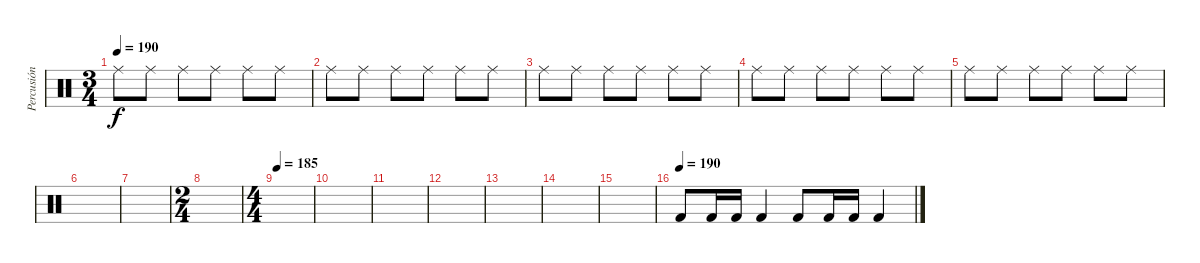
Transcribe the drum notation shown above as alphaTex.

\track ("Percusión" "Percusión") {instrument percussion}
\staff {score}
\articulation defaults
\ts (3 4)
\tempo 190
\clef neutral
\ks c "Ride (middle)".8{dy f} "Ride (middle)".8 "Ride (middle)".8 "Ride (middle)".8 "Ride (middle)".8 "Ride (middle)".8
|
"Ride (middle)".8 "Ride (middle)".8 "Ride (middle)".8 "Ride (middle)".8 "Ride (middle)".8 "Ride (middle)".8 |
"Ride (middle)".8 "Ride (middle)".8 "Ride (middle)".8 "Ride (middle)".8 "Ride (middle)".8 "Ride (middle)".8 |
"Ride (middle)".8 "Ride (middle)".8 "Ride (middle)".8 "Ride (middle)".8 "Ride (middle)".8 "Ride (middle)".8 |
"Ride (middle)".8 "Ride (middle)".8 "Ride (middle)".8 "Ride (middle)".8 "Ride (middle)".8 "Ride (middle)".8 |
|
|
\ts (2 4)
|
\ts (4 4)
\tempo 185
|
|
|
|
|
|
|
\tempo (190)
"Kick (hit) 2".8 "Kick (hit) 2".16 "Kick (hit) 2".16 "Kick (hit) 2".4 "Kick (hit) 2".8 "Kick (hit) 2".16 "Kick (hit) 2".16 "Kick (hit) 2".4
